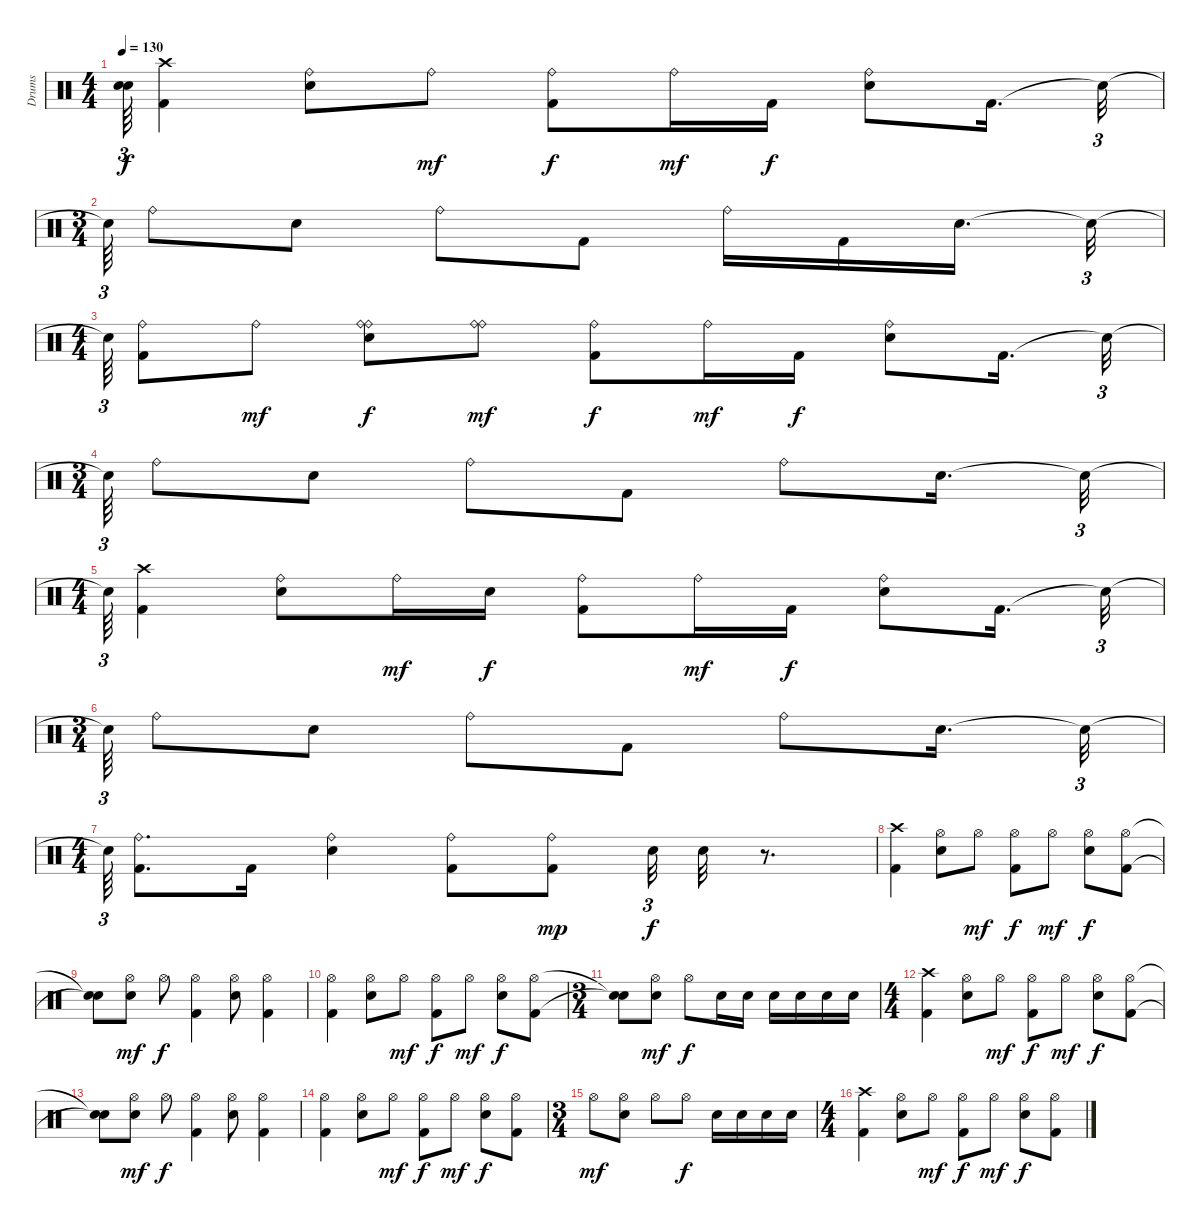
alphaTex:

\track ("Drums" "Drums") {instrument percussion}
\staff {score}
\articulation defaults
\ts (4 4)
\tempo 130
\clef neutral
\ks c
("Snare (hit)"{t} "Snare (hit)"{t}).64{tu (3 2) dy f} ("Crash high (hit)" "Kick (hit) 2").4 ("Electric Snare (hit)" "Ride (bell)").8 "Ride (bell)".8{dy mf} ("Kick (hit) 2" "Ride (bell)").8{dy f} "Ride (bell)".16{dy mf} "Kick (hit) 2".16{dy f} ("Ride (bell)" "Electric Snare (hit)").8 "Kick (hit) 2".16{d} "Snare (hit)"{t}.32{tu (3 2)} |
\ts (3 4)
"Snare (hit)"{t}.64{tu (3 2)} "Ride (bell)".8 "Electric Snare (hit)".8 "Ride (bell)".8 "Kick (hit) 2".8 "Ride (bell)".16 "Kick (hit) 2".16 "Electric Snare (hit)".16{d} "Snare (hit)"{t}.32{tu (3 2)} |
\ts (4 4)
"Snare (hit)"{t}.64{tu (3 2)} ("Kick (hit) 2" "Ride (bell)").8 "Ride (bell)".8{dy mf} ("Electric Snare (hit)" "Ride (bell)" "Ride (bell)").8{dy f} ("Ride (bell)" "Ride (bell)").8{dy mf} ("Kick (hit) 2" "Ride (bell)").8{dy f} "Ride (bell)".16{dy mf} "Kick (hit) 2".16{dy f} ("Ride (bell)" "Electric Snare (hit)").8 "Kick (hit) 2".16{d} "Snare (hit)"{t}.32{tu (3 2)} |
\ts (3 4)
"Snare (hit)"{t}.64{tu (3 2)} "Ride (bell)".8 "Electric Snare (hit)".8 "Ride (bell)".8 "Kick (hit) 2".8 "Ride (bell)".8 "Electric Snare (hit)".16{d} "Snare (hit)"{t}.32{tu (3 2)} |
\ts (4 4)
"Snare (hit)"{t}.64{tu (3 2)} ("Kick (hit) 2" "Crash high (hit)").4 ("Ride (bell)" "Electric Snare (hit)").8 "Ride (bell)".16{dy mf} "Electric Snare (hit)".16{dy f} ("Kick (hit) 2" "Ride (bell)").8 "Ride (bell)".16{dy mf} "Kick (hit) 2".16{dy f} ("Ride (bell)" "Electric Snare (hit)").8 "Kick (hit) 2".16{d} "Snare (hit)"{t}.32{tu (3 2)} |
\ts (3 4)
"Snare (hit)"{t}.64{tu (3 2)} "Ride (bell)".8 "Electric Snare (hit)".8 "Ride (bell)".8 "Kick (hit) 2".8 "Ride (bell)".8 "Electric Snare (hit)".16{d} "Snare (hit)"{t}.32{tu (3 2)} |
\ts (4 4)
"Snare (hit)"{t}.64{tu (3 2)} ("Ride (bell)" "Kick (hit) 2").8{d} "Kick (hit) 2".16 ("Ride (bell)" "Electric Snare (hit)").4 ("Kick (hit) 2" "Ride (bell)").8 ("Kick (hit) 2" "Ride (bell)").8{dy mp} "Electric Snare (hit)".32{tu (3 2) dy f} "Electric Snare (hit)".32 r.8{d} |
("Kick (hit) 2" "Crash high (hit)").4 ("Electric Snare (hit)" "Hi-Hat (open)").8 "Hi-Hat (open)".8{dy mf} ("Kick (hit) 2" "Hi-Hat (open)").8{dy f} "Hi-Hat (open)".8{dy mf} ("Electric Snare (hit)" "Hi-Hat (open)").8{dy f} ("Kick (hit) 2" "Hi-Hat (open)").8 |
("Snare (hit)"{t} "Snare (hit)"{t}).8 ("Electric Snare (hit)" "Hi-Hat (open)").8{dy mf} "Hi-Hat (open)".8{dy f} ("Kick (hit) 2" "Hi-Hat (open)").4 ("Electric Snare (hit)" "Hi-Hat (open)").8 ("Hi-Hat (open)" "Kick (hit) 2").4 |
("Kick (hit) 2" "Hi-Hat (open)").4 ("Electric Snare (hit)" "Hi-Hat (open)").8 "Hi-Hat (open)".8{dy mf} ("Kick (hit) 2" "Hi-Hat (open)").8{dy f} "Hi-Hat (open)".8{dy mf} ("Electric Snare (hit)" "Hi-Hat (open)").8{dy f} ("Kick (hit) 2" "Hi-Hat (open)").8 |
\ts (3 4)
("Snare (hit)"{t} "Snare (hit)"{t}).8 ("Electric Snare (hit)" "Hi-Hat (open)").8{dy mf} "Hi-Hat (open)".8{dy f} "Electric Snare (hit)".16 "Electric Snare (hit)".16 "Electric Snare (hit)".16 "Electric Snare (hit)".16 "Electric Snare (hit)".16 "Electric Snare (hit)".16 |
\ts (4 4)
("Crash high (hit)" "Kick (hit) 2").4 ("Electric Snare (hit)" "Hi-Hat (open)").8 "Hi-Hat (open)".8{dy mf} ("Kick (hit) 2" "Hi-Hat (open)").8{dy f} "Hi-Hat (open)".8{dy mf} ("Electric Snare (hit)" "Hi-Hat (open)").8{dy f} ("Kick (hit) 2" "Hi-Hat (open)").8 |
("Snare (hit)"{t} "Snare (hit)"{t}).8 ("Electric Snare (hit)" "Hi-Hat (open)").8{dy mf} "Hi-Hat (open)".8{dy f} ("Kick (hit) 2" "Hi-Hat (open)").4 ("Electric Snare (hit)" "Hi-Hat (open)").8 ("Hi-Hat (open)" "Kick (hit) 2").4 |
("Kick (hit) 2" "Hi-Hat (open)").4 ("Electric Snare (hit)" "Hi-Hat (open)").8 "Hi-Hat (open)".8{dy mf} ("Kick (hit) 2" "Hi-Hat (open)").8{dy f} "Hi-Hat (open)".8{dy mf} ("Electric Snare (hit)" "Hi-Hat (open)").8{dy f} ("Kick (hit) 2" "Hi-Hat (open)").8 |
\ts (3 4)
"Hi-Hat (open)".8{dy mf} ("Electric Snare (hit)" "Hi-Hat (open)").8 "Hi-Hat (open)".8 "Hi-Hat (open)".8{dy f} "Electric Snare (hit)".16 "Electric Snare (hit)".16 "Electric Snare (hit)".16 "Electric Snare (hit)".16 |
\ts (4 4)
("Kick (hit) 2" "Crash high (hit)").4 ("Electric Snare (hit)" "Hi-Hat (open)").8 "Hi-Hat (open)".8{dy mf} ("Kick (hit) 2" "Hi-Hat (open)").8{dy f} "Hi-Hat (open)".8{dy mf} ("Electric Snare (hit)" "Hi-Hat (open)").8{dy f} ("Kick (hit) 2" "Hi-Hat (open)").8
